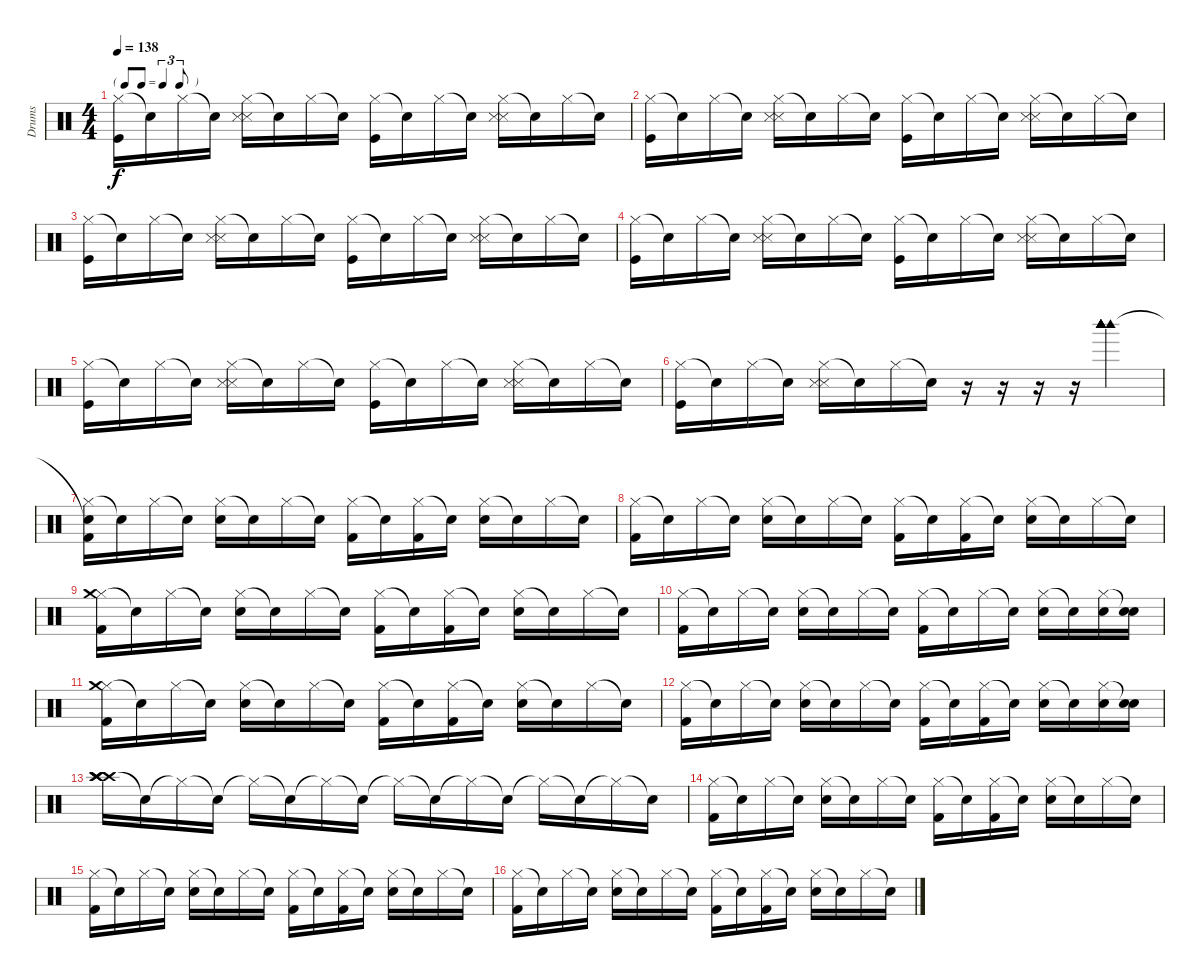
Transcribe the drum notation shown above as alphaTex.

\track ("Drums" "Drums") {instrument percussion}
\staff {score}
\articulation defaults
\ts (4 4)
\tf triplet8th
\tempo 138
\clef neutral
\ks c
("Hi-Hat (closed)" "Kick (hit)").16{dy f} "Snare (hit)"{t}.16 "Hi-Hat (closed)".16 "Snare (hit)"{t}.16 ("Hi-Hat (closed)" "Snare (side stick) 3" "Snare (side stick) 3").16 "Snare (hit)"{t}.16 "Hi-Hat (closed)".16 "Snare (hit)"{t}.16 ("Hi-Hat (closed)" "Kick (hit)").16 "Snare (hit)"{t}.16 "Hi-Hat (closed)".16 "Snare (hit)"{t}.16 ("Hi-Hat (closed)" "Snare (side stick) 3" "Snare (side stick) 3").16 "Snare (hit)"{t}.16 "Hi-Hat (closed)".16 "Snare (hit)"{t}.16 |
("Hi-Hat (closed)" "Kick (hit)").16 "Snare (hit)"{t}.16 "Hi-Hat (closed)".16 "Snare (hit)"{t}.16 ("Hi-Hat (closed)" "Snare (side stick) 3" "Snare (side stick) 3").16 "Snare (hit)"{t}.16 "Hi-Hat (closed)".16 "Snare (hit)"{t}.16 ("Hi-Hat (closed)" "Kick (hit)").16 "Snare (hit)"{t}.16 "Hi-Hat (closed)".16 "Snare (hit)"{t}.16 ("Hi-Hat (closed)" "Snare (side stick) 3" "Snare (side stick) 3").16 "Snare (hit)"{t}.16 "Hi-Hat (closed)".16 "Snare (hit)"{t}.16 |
("Hi-Hat (closed)" "Kick (hit)").16 "Snare (hit)"{t}.16 "Hi-Hat (closed)".16 "Snare (hit)"{t}.16 ("Hi-Hat (closed)" "Snare (side stick) 3" "Snare (side stick) 3").16 "Snare (hit)"{t}.16 "Hi-Hat (closed)".16 "Snare (hit)"{t}.16 ("Hi-Hat (closed)" "Kick (hit)").16 "Snare (hit)"{t}.16 "Hi-Hat (closed)".16 "Snare (hit)"{t}.16 ("Hi-Hat (closed)" "Snare (side stick) 3" "Snare (side stick) 3").16 "Snare (hit)"{t}.16 "Hi-Hat (closed)".16 "Snare (hit)"{t}.16 |
("Hi-Hat (closed)" "Kick (hit)").16 "Snare (hit)"{t}.16 "Hi-Hat (closed)".16 "Snare (hit)"{t}.16 ("Hi-Hat (closed)" "Snare (side stick) 3" "Snare (side stick) 3").16 "Snare (hit)"{t}.16 "Hi-Hat (closed)".16 "Snare (hit)"{t}.16 ("Hi-Hat (closed)" "Kick (hit)").16 "Snare (hit)"{t}.16 "Hi-Hat (closed)".16 "Snare (hit)"{t}.16 ("Hi-Hat (closed)" "Snare (side stick) 3" "Snare (side stick) 3").16 "Snare (hit)"{t}.16 "Hi-Hat (closed)".16 "Snare (hit)"{t}.16 |
("Hi-Hat (closed)" "Kick (hit)").16 "Snare (hit)"{t}.16 "Hi-Hat (closed)".16 "Snare (hit)"{t}.16 ("Hi-Hat (closed)" "Snare (side stick) 3" "Snare (side stick) 3").16 "Snare (hit)"{t}.16 "Hi-Hat (closed)".16 "Snare (hit)"{t}.16 ("Hi-Hat (closed)" "Kick (hit)").16 "Snare (hit)"{t}.16 "Hi-Hat (closed)".16 "Snare (hit)"{t}.16 ("Hi-Hat (closed)" "Snare (side stick) 3" "Snare (side stick) 3").16 "Snare (hit)"{t}.16 "Hi-Hat (closed)".16 "Snare (hit)"{t}.16 |
("Hi-Hat (closed)" "Kick (hit)").16 "Snare (hit)"{t}.16 "Hi-Hat (closed)".16 "Snare (hit)"{t}.16 ("Hi-Hat (closed)" "Snare (side stick) 3" "Snare (side stick) 3").16 "Snare (hit)"{t}.16 "Hi-Hat (closed)".16 "Snare (hit)"{t}.16 r.16 r.16 r.16 r.16 ("Woodblock high (hit)" "Woodblock high (hit)" "Woodblock high (hit)" "Woodblock high (hit)" "Woodblock high (hit)" "Woodblock high (hit)").4 |
("Hi-Hat (closed)" "Kick (hit) 2" "Snare (hit)"{t}).16 "Snare (hit)"{t}.16 "Hi-Hat (closed)".16 "Snare (hit)"{t}.16 ("Hi-Hat (closed)" "Snare (hit) 2").16 "Snare (hit)"{t}.16 "Hi-Hat (closed)".16 "Snare (hit)"{t}.16 ("Hi-Hat (closed)" "Kick (hit) 2").16 "Snare (hit)"{t}.16 ("Hi-Hat (closed)" "Kick (hit) 2").16 "Snare (hit)"{t}.16 ("Hi-Hat (closed)" "Snare (hit) 2").16 "Snare (hit)"{t}.16 "Hi-Hat (closed)".16 "Snare (hit)"{t}.16 |
("Hi-Hat (closed)" "Kick (hit) 2").16 "Snare (hit)"{t}.16 "Hi-Hat (closed)".16 "Snare (hit)"{t}.16 ("Hi-Hat (closed)" "Snare (hit) 2").16 "Snare (hit)"{t}.16 "Hi-Hat (closed)".16 "Snare (hit)"{t}.16 ("Hi-Hat (closed)" "Kick (hit) 2").16 "Snare (hit)"{t}.16 ("Hi-Hat (closed)" "Kick (hit) 2").16 "Snare (hit)"{t}.16 ("Hi-Hat (closed)" "Snare (hit) 2").16 "Snare (hit)"{t}.16 "Hi-Hat (closed)".16 "Snare (hit)"{t}.16 |
("Hi-Hat (closed)" "Kick (hit) 2" "Crash medium (hit)").16 "Snare (hit)"{t}.16 "Hi-Hat (closed)".16 "Snare (hit)"{t}.16 ("Hi-Hat (closed)" "Snare (hit) 2").16 "Snare (hit)"{t}.16 "Hi-Hat (closed)".16 "Snare (hit)"{t}.16 ("Hi-Hat (closed)" "Kick (hit) 2").16 "Snare (hit)"{t}.16 ("Hi-Hat (closed)" "Kick (hit) 2").16 "Snare (hit)"{t}.16 ("Hi-Hat (closed)" "Snare (hit) 2").16 "Snare (hit)"{t}.16 "Hi-Hat (closed)".16 "Snare (hit)"{t}.16 |
("Hi-Hat (closed)" "Kick (hit) 2").16 "Snare (hit)"{t}.16 "Hi-Hat (closed)".16 "Snare (hit)"{t}.16 ("Hi-Hat (closed)" "Snare (hit) 2").16 "Snare (hit)"{t}.16 "Hi-Hat (closed)".16 "Snare (hit)"{t}.16 ("Hi-Hat (closed)" "Kick (hit) 2").16 "Snare (hit)"{t}.16 "Hi-Hat (closed)".16 "Snare (hit)"{t}.16 ("Hi-Hat (closed)" "Snare (hit) 2").16 "Snare (hit)"{t}.16 ("Hi-Hat (closed)" "Snare (hit) 2").16 ("Snare (hit)"{t} "Snare (hit) 2").16 |
("Hi-Hat (closed)" "Kick (hit) 2" "Crash medium (hit)").16 "Snare (hit)"{t}.16 "Hi-Hat (closed)".16 "Snare (hit)"{t}.16 ("Hi-Hat (closed)" "Snare (hit) 2").16 "Snare (hit)"{t}.16 "Hi-Hat (closed)".16 "Snare (hit)"{t}.16 ("Hi-Hat (closed)" "Kick (hit) 2").16 "Snare (hit)"{t}.16 ("Hi-Hat (closed)" "Kick (hit) 2").16 "Snare (hit)"{t}.16 ("Hi-Hat (closed)" "Snare (hit) 2").16 "Snare (hit)"{t}.16 "Hi-Hat (closed)".16 "Snare (hit)"{t}.16 |
("Hi-Hat (closed)" "Kick (hit) 2").16 "Snare (hit)"{t}.16 "Hi-Hat (closed)".16 "Snare (hit)"{t}.16 ("Hi-Hat (closed)" "Snare (hit) 2").16 "Snare (hit)"{t}.16 "Hi-Hat (closed)".16 "Snare (hit)"{t}.16 ("Hi-Hat (closed)" "Kick (hit) 2").16 "Snare (hit)"{t}.16 ("Hi-Hat (closed)" "Kick (hit) 2").16 "Snare (hit)"{t}.16 ("Hi-Hat (closed)" "Snare (hit) 2").16 "Snare (hit)"{t}.16 ("Hi-Hat (closed)" "Snare (hit) 2").16 ("Snare (hit)"{t} "Snare (hit) 2").16 |
("Crash high (hit)" "Crash high (hit)" "Crash high (hit)" "Crash high (hit)").16 "Snare (hit)"{t}.16 "Hi-Hat (closed)"{t}.16 "Snare (hit)"{t}.16 "Hi-Hat (closed)"{t}.16 "Snare (hit)"{t}.16 "Hi-Hat (closed)"{t}.16 "Snare (hit)"{t}.16 "Hi-Hat (closed)"{t}.16 "Snare (hit)"{t}.16 "Hi-Hat (closed)"{t}.16 "Snare (hit)"{t}.16 "Hi-Hat (closed)"{t}.16 "Snare (hit)"{t}.16 "Hi-Hat (closed)"{t}.16 "Snare (hit)"{t}.16 |
("Hi-Hat (closed)" "Kick (hit) 2").16 "Snare (hit)"{t}.16 "Hi-Hat (closed)".16 "Snare (hit)"{t}.16 ("Hi-Hat (closed)" "Snare (hit) 2").16 "Snare (hit)"{t}.16 "Hi-Hat (closed)".16 "Snare (hit)"{t}.16 ("Hi-Hat (closed)" "Kick (hit) 2").16 "Snare (hit)"{t}.16 ("Hi-Hat (closed)" "Kick (hit) 2").16 "Snare (hit)"{t}.16 ("Hi-Hat (closed)" "Snare (hit) 2").16 "Snare (hit)"{t}.16 "Hi-Hat (closed)".16 "Snare (hit)"{t}.16 |
("Hi-Hat (closed)" "Kick (hit) 2").16 "Snare (hit)"{t}.16 "Hi-Hat (closed)".16 "Snare (hit)"{t}.16 ("Hi-Hat (closed)" "Snare (hit) 2").16 "Snare (hit)"{t}.16 "Hi-Hat (closed)".16 "Snare (hit)"{t}.16 ("Hi-Hat (closed)" "Kick (hit) 2").16 "Snare (hit)"{t}.16 ("Hi-Hat (closed)" "Kick (hit) 2").16 "Snare (hit)"{t}.16 ("Hi-Hat (closed)" "Snare (hit) 2").16 "Snare (hit)"{t}.16 "Hi-Hat (closed)".16 "Snare (hit)"{t}.16 |
("Hi-Hat (closed)" "Kick (hit) 2").16 "Snare (hit)"{t}.16 "Hi-Hat (closed)".16 "Snare (hit)"{t}.16 ("Hi-Hat (closed)" "Snare (hit) 2").16 "Snare (hit)"{t}.16 "Hi-Hat (closed)".16 "Snare (hit)"{t}.16 ("Hi-Hat (closed)" "Kick (hit) 2").16 "Snare (hit)"{t}.16 ("Hi-Hat (closed)" "Kick (hit) 2").16 "Snare (hit)"{t}.16 ("Hi-Hat (closed)" "Snare (hit) 2").16 "Snare (hit)"{t}.16 "Hi-Hat (closed)".16 "Snare (hit)"{t}.16
